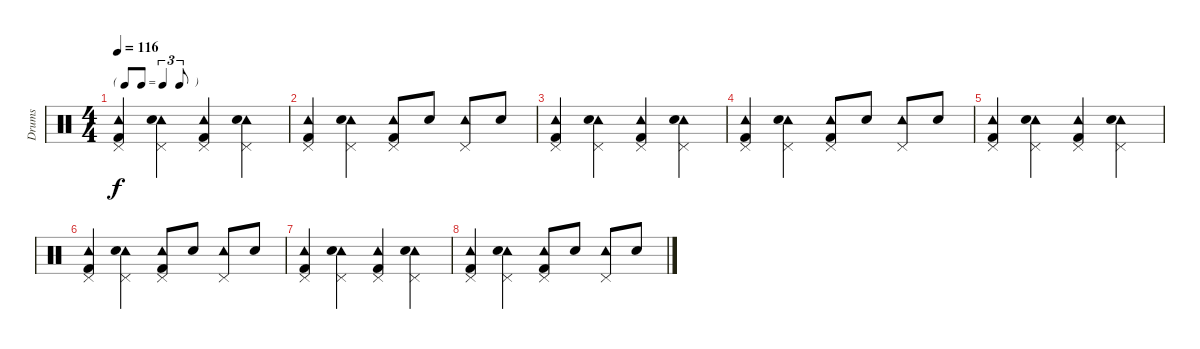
\track ("Drums" "Drums") {instrument percussion}
\staff {score}
\articulation defaults
\ts (4 4)
\tf triplet8th
\tempo 116
\clef neutral
\ks c
("Tambourine (hit)" "Pedal Hi-Hat (hit)" "Kick (hit) 2").4{dy f} ("Tambourine (hit)" "Pedal Hi-Hat (hit)" "Snare (hit) 2").4 ("Tambourine (hit)" "Pedal Hi-Hat (hit)" "Kick (hit) 2").4 ("Tambourine (hit)" "Pedal Hi-Hat (hit)" "Snare (hit) 2").4 |
("Tambourine (hit)" "Pedal Hi-Hat (hit)" "Kick (hit) 2").4 ("Tambourine (hit)" "Pedal Hi-Hat (hit)" "Snare (hit) 2").4 ("Tambourine (hit)" "Pedal Hi-Hat (hit)" "Kick (hit) 2").8 "Snare (hit) 2".8 ("Tambourine (hit)" "Pedal Hi-Hat (hit)").8 "Snare (hit) 2".8 |
("Tambourine (hit)" "Pedal Hi-Hat (hit)" "Kick (hit) 2").4 ("Tambourine (hit)" "Pedal Hi-Hat (hit)" "Snare (hit) 2").4 ("Tambourine (hit)" "Pedal Hi-Hat (hit)" "Kick (hit) 2").4 ("Tambourine (hit)" "Pedal Hi-Hat (hit)" "Snare (hit) 2").4 |
("Tambourine (hit)" "Pedal Hi-Hat (hit)" "Kick (hit) 2").4 ("Tambourine (hit)" "Pedal Hi-Hat (hit)" "Snare (hit) 2").4 ("Tambourine (hit)" "Pedal Hi-Hat (hit)" "Kick (hit) 2").8 "Snare (hit) 2".8 ("Tambourine (hit)" "Pedal Hi-Hat (hit)").8 "Snare (hit) 2".8 |
("Tambourine (hit)" "Pedal Hi-Hat (hit)" "Kick (hit) 2").4{volume 0} ("Tambourine (hit)" "Pedal Hi-Hat (hit)" "Snare (hit) 2").4 ("Tambourine (hit)" "Pedal Hi-Hat (hit)" "Kick (hit) 2").4 ("Tambourine (hit)" "Pedal Hi-Hat (hit)" "Snare (hit) 2").4 |
("Tambourine (hit)" "Pedal Hi-Hat (hit)" "Kick (hit) 2").4 ("Tambourine (hit)" "Pedal Hi-Hat (hit)" "Snare (hit) 2").4 ("Tambourine (hit)" "Pedal Hi-Hat (hit)" "Kick (hit) 2").8 "Snare (hit) 2".8 ("Tambourine (hit)" "Pedal Hi-Hat (hit)").8 "Snare (hit) 2".8 |
("Tambourine (hit)" "Pedal Hi-Hat (hit)" "Kick (hit) 2").4 ("Tambourine (hit)" "Pedal Hi-Hat (hit)" "Snare (hit) 2").4 ("Tambourine (hit)" "Pedal Hi-Hat (hit)" "Kick (hit) 2").4 ("Tambourine (hit)" "Pedal Hi-Hat (hit)" "Snare (hit) 2").4 |
("Tambourine (hit)" "Pedal Hi-Hat (hit)" "Kick (hit) 2").4 ("Tambourine (hit)" "Pedal Hi-Hat (hit)" "Snare (hit) 2").4 ("Tambourine (hit)" "Pedal Hi-Hat (hit)" "Kick (hit) 2").8 "Snare (hit) 2".8 ("Tambourine (hit)" "Pedal Hi-Hat (hit)").8 "Snare (hit) 2".8
